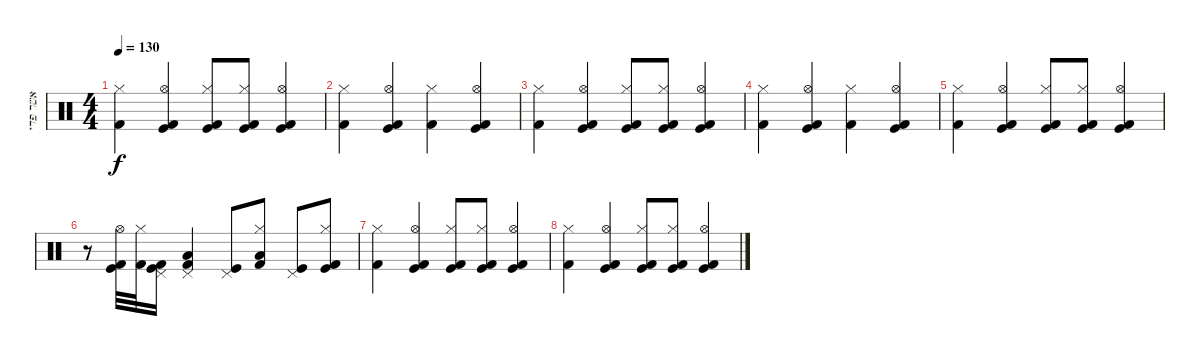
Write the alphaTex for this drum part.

\track ("אשר פדי" "אשר פדי") {instrument percussion}
\staff {score}
\articulation defaults
\ts (4 4)
\tempo 130
\clef neutral
\ks c
("Kick (hit) 2" "Hi-Hat (closed)").4{dy f} ("Kick (hit) 2" "Hi-Hat (open)" "Kick (hit)").4 ("Kick (hit) 2" "Hi-Hat (closed)" "Kick (hit)").8 ("Kick (hit) 2" "Hi-Hat (closed)" "Kick (hit)").8 ("Hi-Hat (open)" "Kick (hit) 2" "Kick (hit)").4 |
("Kick (hit) 2" "Hi-Hat (closed)").4 ("Hi-Hat (open)" "Kick (hit) 2" "Kick (hit)").4 ("Kick (hit) 2" "Hi-Hat (closed)").4 ("Hi-Hat (open)" "Kick (hit) 2" "Kick (hit)").4 |
("Kick (hit) 2" "Hi-Hat (closed)").4 ("Kick (hit) 2" "Hi-Hat (open)" "Kick (hit)").4 ("Kick (hit) 2" "Hi-Hat (closed)" "Kick (hit)").8 ("Kick (hit) 2" "Hi-Hat (closed)" "Kick (hit)").8 ("Hi-Hat (open)" "Kick (hit) 2" "Kick (hit)").4 |
("Kick (hit) 2" "Hi-Hat (closed)").4 ("Hi-Hat (open)" "Kick (hit) 2" "Kick (hit)").4 ("Kick (hit) 2" "Hi-Hat (closed)").4 ("Hi-Hat (open)" "Kick (hit) 2" "Kick (hit)").4 |
("Kick (hit) 2" "Hi-Hat (closed)").4 ("Kick (hit) 2" "Hi-Hat (open)" "Kick (hit)").4 ("Kick (hit) 2" "Hi-Hat (closed)" "Kick (hit)").8 ("Kick (hit) 2" "Hi-Hat (closed)" "Kick (hit)").8 ("Hi-Hat (open)" "Kick (hit) 2" "Kick (hit)").4 |
r.8 ("Hi-Hat (open)" "Kick (hit) 2" "Kick (hit)").32 ("Kick (hit) 2" "Hi-Hat (closed)").32 ("Pedal Hi-Hat (hit)" "Kick (hit) 2" "Kick (hit)").16 ("Low Floor Tom (hit)" "Pedal Hi-Hat (hit)" "Kick (hit) 2").4 ("Pedal Hi-Hat (hit)" "Kick (hit)").8 ("Kick (hit) 2" "Low Floor Tom (hit)" "Hi-Hat (closed)").8 ("Pedal Hi-Hat (hit)" "Kick (hit)").8 ("Kick (hit) 2" "Kick (hit)" "Hi-Hat (closed)").8 |
("Kick (hit) 2" "Hi-Hat (closed)").4 ("Kick (hit) 2" "Hi-Hat (open)" "Kick (hit)").4 ("Kick (hit) 2" "Hi-Hat (closed)" "Kick (hit)").8 ("Kick (hit) 2" "Hi-Hat (closed)" "Kick (hit)").8 ("Hi-Hat (open)" "Kick (hit) 2" "Kick (hit)").4 |
("Kick (hit) 2" "Hi-Hat (closed)").4 ("Kick (hit) 2" "Hi-Hat (open)" "Kick (hit)").4 ("Kick (hit) 2" "Hi-Hat (closed)" "Kick (hit)").8 ("Kick (hit) 2" "Hi-Hat (closed)" "Kick (hit)").8 ("Hi-Hat (open)" "Kick (hit) 2" "Kick (hit)").4
